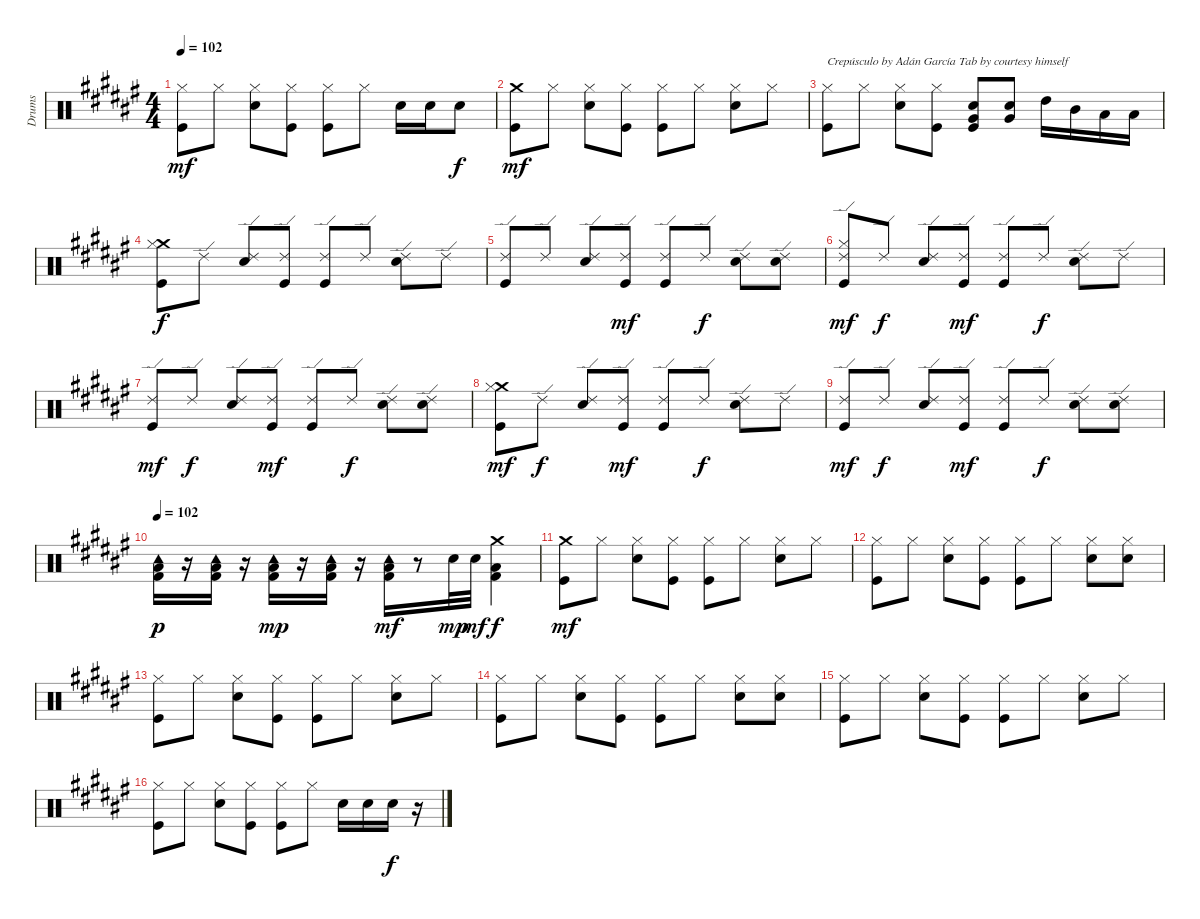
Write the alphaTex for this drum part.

\track ("Drums" "Drums") {instrument percussion}
\staff {score}
\articulation defaults
\ts (4 4)
\tempo 102
\clef neutral
\ks f#
("Kick (hit)" "Hi-Hat (closed)").8{dy mf} "Hi-Hat (closed)".8 ("Electric Snare (hit)" "Hi-Hat (closed)").8 ("Kick (hit)" "Hi-Hat (closed)").8 ("Kick (hit)" "Hi-Hat (closed)").8 "Hi-Hat (closed)".8 "Electric Snare (hit)".16 "Electric Snare (hit)".16 "Electric Snare (hit)".8{dy f} |
("Crash medium (hit)" "Kick (hit)").8{dy mf} "Hi-Hat (closed)".8 ("Electric Snare (hit)" "Hi-Hat (closed)").8 ("Kick (hit)" "Hi-Hat (closed)").8 ("Kick (hit)" "Hi-Hat (closed)").8 "Hi-Hat (closed)".8 ("Electric Snare (hit)" "Hi-Hat (closed)").8 "Hi-Hat (closed)".8 |
("Kick (hit)" "Hi-Hat (closed)").8{txt "Crepúsculo by Adán García Tab by courtesy himself"} "Hi-Hat (closed)".8 ("Electric Snare (hit)" "Hi-Hat (closed)").8 ("Kick (hit)" "Hi-Hat (closed)").8 ("Electric Snare (hit)" "Kick (hit)" "Very Low Tom (hit)").8 ("Electric Snare (hit)" "Very Low Tom (hit)").8 "High Tom (hit)".16 "Mid Tom (hit)".16 "Low Tom (hit)".16 "Low Tom (hit)".16 |
("Crash medium (hit)" "Kick (hit)" "Hi-Hat (closed)").8{dy f} "Ride (edge) 2".8 ("Electric Snare (hit)" "Ride (edge) 2").8 ("Kick (hit)" "Ride (edge) 2").8 ("Kick (hit)" "Ride (edge) 2").8 "Ride (edge) 2".8 ("Electric Snare (hit)" "Ride (edge) 2").8 "Ride (edge) 2".8 |
("Kick (hit)" "Ride (edge) 2").8 "Ride (edge) 2".8 ("Electric Snare (hit)" "Ride (edge) 2").8 ("Kick (hit)" "Ride (edge) 2").8{dy mf} ("Kick (hit)" "Ride (edge) 2").8 "Ride (edge) 2".8{dy f} ("Electric Snare (hit)" "Ride (edge) 2").8 ("Electric Snare (hit)" "Ride (edge) 2").8 |
("Ride (edge) 2" "Kick (hit)" "Hi-Hat (closed)").8{dy mf} "Ride (edge) 2".8{dy f} ("Electric Snare (hit)" "Ride (edge) 2").8 ("Kick (hit)" "Ride (edge) 2").8{dy mf} ("Kick (hit)" "Ride (edge) 2").8 "Ride (edge) 2".8{dy f} ("Electric Snare (hit)" "Ride (edge) 2").8 "Ride (edge) 2".8 |
("Kick (hit)" "Ride (edge) 2").8{dy mf} "Ride (edge) 2".8{dy f} ("Electric Snare (hit)" "Ride (edge) 2").8 ("Kick (hit)" "Ride (edge) 2").8{dy mf} ("Kick (hit)" "Ride (edge) 2").8 "Ride (edge) 2".8{dy f} ("Electric Snare (hit)" "Ride (edge) 2").8 ("Electric Snare (hit)" "Ride (edge) 2").8 |
("Crash medium (hit)" "Kick (hit)" "Hi-Hat (closed)").8{dy mf} "Ride (edge) 2".8{dy f} ("Electric Snare (hit)" "Ride (edge) 2").8 ("Kick (hit)" "Ride (edge) 2").8{dy mf} ("Kick (hit)" "Ride (edge) 2").8 "Ride (edge) 2".8{dy f} ("Electric Snare (hit)" "Ride (edge) 2").8 "Ride (edge) 2".8 |
("Kick (hit)" "Ride (edge) 2").8{dy mf} "Ride (edge) 2".8{dy f} ("Electric Snare (hit)" "Ride (edge) 2").8 ("Kick (hit)" "Ride (edge) 2").8{dy mf} ("Kick (hit)" "Ride (edge) 2").8 "Ride (edge) 2".8{dy f} ("Electric Snare (hit)" "Ride (edge) 2").8 ("Electric Snare (hit)" "Ride (edge) 2").8 |
\tempo 102
("Tambourine (hit)" "Kick (hit) 2" "Low Floor Tom (hit)").16{dy p} r.16 ("Tambourine (hit)" "Kick (hit) 2" "Low Floor Tom (hit)").16 r.16 ("Tambourine (hit)" "Kick (hit) 2" "Low Floor Tom (hit)").16{dy mp} r.16 ("Tambourine (hit)" "Kick (hit) 2" "Low Floor Tom (hit)").16 r.16 ("Tambourine (hit)" "Kick (hit) 2" "Low Floor Tom (hit)").16{dy mf} r.8 "Electric Snare (hit)".32{dy mp} "Electric Snare (hit)".32{dy mf} ("Kick (hit) 2" "Low Floor Tom (hit)" "Crash medium (hit)").4{dy f} |
("Kick (hit)" "Crash medium (hit)").8{dy mf} "Hi-Hat (closed)".8 ("Electric Snare (hit)" "Hi-Hat (closed)").8 ("Kick (hit)" "Hi-Hat (closed)").8 ("Kick (hit)" "Hi-Hat (closed)").8 "Hi-Hat (closed)".8 ("Electric Snare (hit)" "Hi-Hat (closed)").8 "Hi-Hat (closed)".8 |
("Kick (hit)" "Hi-Hat (closed)").8 "Hi-Hat (closed)".8 ("Electric Snare (hit)" "Hi-Hat (closed)").8 ("Kick (hit)" "Hi-Hat (closed)").8 ("Kick (hit)" "Hi-Hat (closed)").8 "Hi-Hat (closed)".8 ("Electric Snare (hit)" "Hi-Hat (closed)").8 ("Electric Snare (hit)" "Hi-Hat (closed)").8 |
("Kick (hit)" "Hi-Hat (closed)").8 "Hi-Hat (closed)".8 ("Electric Snare (hit)" "Hi-Hat (closed)").8 ("Kick (hit)" "Hi-Hat (closed)").8 ("Kick (hit)" "Hi-Hat (closed)").8 "Hi-Hat (closed)".8 ("Electric Snare (hit)" "Hi-Hat (closed)").8 "Hi-Hat (closed)".8 |
("Kick (hit)" "Hi-Hat (closed)").8 "Hi-Hat (closed)".8 ("Electric Snare (hit)" "Hi-Hat (closed)").8 ("Kick (hit)" "Hi-Hat (closed)").8 ("Kick (hit)" "Hi-Hat (closed)").8 "Hi-Hat (closed)".8 ("Electric Snare (hit)" "Hi-Hat (closed)").8 ("Electric Snare (hit)" "Hi-Hat (closed)").8 |
("Kick (hit)" "Hi-Hat (closed)").8 "Hi-Hat (closed)".8 ("Electric Snare (hit)" "Hi-Hat (closed)").8 ("Kick (hit)" "Hi-Hat (closed)").8 ("Kick (hit)" "Hi-Hat (closed)").8 "Hi-Hat (closed)".8 ("Electric Snare (hit)" "Hi-Hat (closed)").8 "Hi-Hat (closed)".8 |
("Kick (hit)" "Hi-Hat (closed)").8 "Hi-Hat (closed)".8 ("Electric Snare (hit)" "Hi-Hat (closed)").8 ("Kick (hit)" "Hi-Hat (closed)").8 ("Kick (hit)" "Hi-Hat (closed)").8 "Hi-Hat (closed)".8 "Electric Snare (hit)".16 "Electric Snare (hit)".16 "Electric Snare (hit)".16{dy f} r.16
